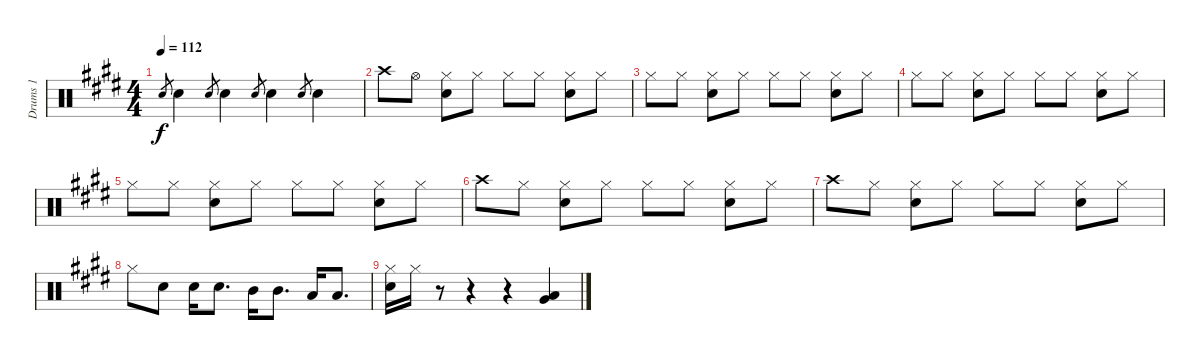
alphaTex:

\track ("Drums 1" "Drums 1") {instrument percussion}
\staff {score}
\articulation defaults
\ts (4 4)
\tempo 112
\clef neutral
\ks e "Snare (hit) 2".8{gr dy f} "Snare (hit) 2".4 "Snare (hit) 2".8{gr} "Snare (hit) 2".4 "Snare (hit) 2".8{gr} "Snare (hit) 2".4 "Snare (hit) 2".8{gr} "Snare (hit) 2".4
|
"Crash high (hit)".8 "Hi-Hat (open)".8 ("Hi-Hat (closed)" "Snare (hit) 2").8 "Hi-Hat (closed)".8 "Hi-Hat (closed)".8 "Hi-Hat (closed)".8 ("Hi-Hat (closed)" "Snare (hit) 2").8 "Hi-Hat (closed)".8 |
"Hi-Hat (closed)".8 "Hi-Hat (closed)".8 ("Hi-Hat (closed)" "Snare (hit) 2").8 "Hi-Hat (closed)".8 "Hi-Hat (closed)".8 "Hi-Hat (closed)".8 ("Hi-Hat (closed)" "Snare (hit) 2").8 "Hi-Hat (closed)".8 |
"Hi-Hat (closed)".8 "Hi-Hat (closed)".8 ("Hi-Hat (closed)" "Snare (hit) 2").8 "Hi-Hat (closed)".8 "Hi-Hat (closed)".8 "Hi-Hat (closed)".8 ("Hi-Hat (closed)" "Snare (hit) 2").8 "Hi-Hat (closed)".8 |
"Hi-Hat (closed)".8 "Hi-Hat (closed)".8 ("Hi-Hat (closed)" "Snare (hit) 2").8 "Hi-Hat (closed)".8 "Hi-Hat (closed)".8 "Hi-Hat (closed)".8 ("Hi-Hat (closed)" "Snare (hit) 2").8 "Hi-Hat (closed)".8 |
"Crash high (hit)".8 "Hi-Hat (closed)".8 ("Hi-Hat (closed)" "Snare (hit) 2").8 "Hi-Hat (closed)".8 "Hi-Hat (closed)".8 "Hi-Hat (closed)".8 ("Hi-Hat (closed)" "Snare (hit) 2").8 "Hi-Hat (closed)".8 |
"Crash high (hit)".8 "Hi-Hat (closed)".8 ("Hi-Hat (closed)" "Snare (hit) 2").8 "Hi-Hat (closed)".8 "Hi-Hat (closed)".8 "Hi-Hat (closed)".8 ("Hi-Hat (closed)" "Snare (hit) 2").8 "Hi-Hat (closed)".8 |
"Hi-Hat (closed)".8 "Snare (hit) 2".8 "Snare (hit) 2".16 "Snare (hit) 2".8{d} "Mid Tom (hit)".16 "Mid Tom (hit)".8{d} "Low Tom (hit)".16 "Low Tom (hit)".8{d} |
("Hi-Hat (closed)" "Snare (hit) 2").16 "Hi-Hat (closed)".16 r.8 r.4 r.4 ("Low Tom (hit)" "Very Low Tom (hit)").4
